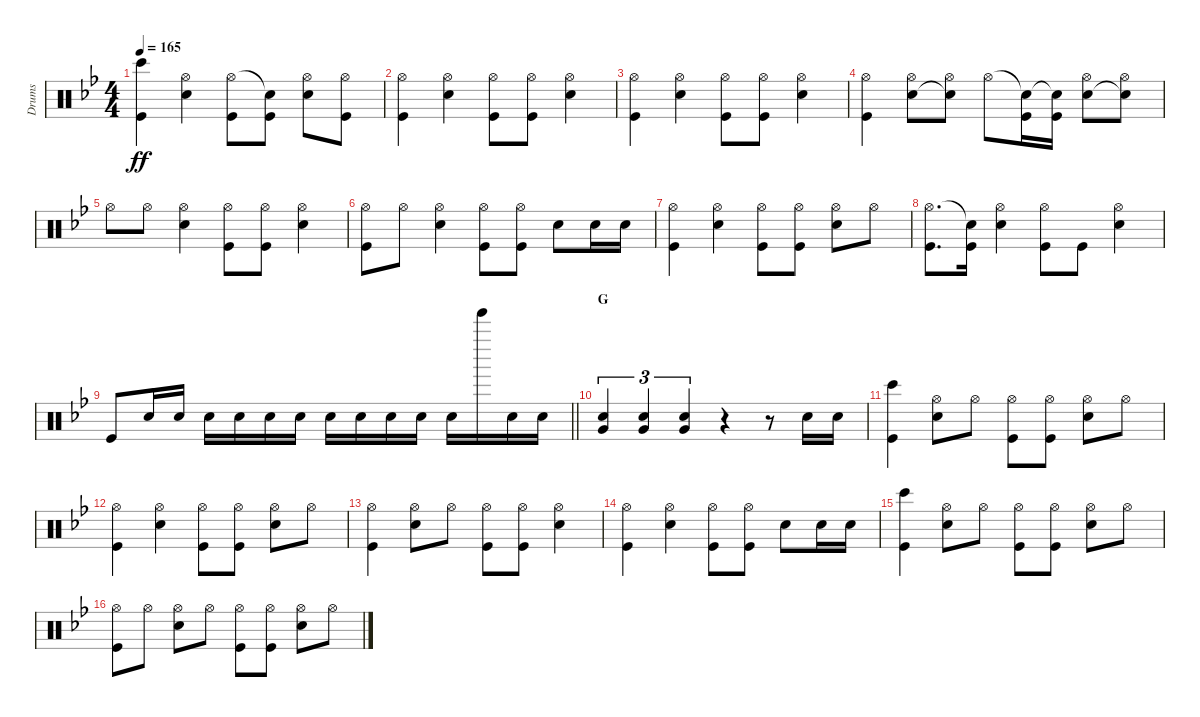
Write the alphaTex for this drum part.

\track ("Drums" "Drums") {instrument percussion}
\staff {score}
\articulation defaults
\ts (4 4)
\tempo 165
\clef neutral
\ks bb
("Bongo High (hit)" "Kick (hit)").4{dy ff} ("Hi-Hat (open)" "Snare (hit) 2").4 ("Hi-Hat (open)" "Kick (hit)").8 ("Snare (hit)"{t} "Kick (hit)").8 ("Hi-Hat (open)" "Snare (hit) 2").8 ("Hi-Hat (open)" "Kick (hit)").8 |
("Hi-Hat (open)" "Kick (hit)").4 ("Hi-Hat (open)" "Snare (hit) 2").4 ("Hi-Hat (open)" "Kick (hit)").8 ("Hi-Hat (open)" "Kick (hit)").8 ("Hi-Hat (open)" "Snare (hit) 2").4 |
("Hi-Hat (open)" "Kick (hit)").4 ("Hi-Hat (open)" "Snare (hit) 2").4 ("Hi-Hat (open)" "Kick (hit)").8 ("Hi-Hat (open)" "Kick (hit)").8 ("Hi-Hat (open)" "Snare (hit) 2").4 |
("Hi-Hat (open)" "Kick (hit)").4 ("Hi-Hat (open)" "Snare (hit) 2").8 ("Hi-Hat (open)" "Snare (hit)"{t}).8 "Hi-Hat (open)".8 ("Snare (hit)"{t} "Kick (hit)").16 ("Snare (hit)"{t} "Kick (hit)").16 ("Hi-Hat (open)" "Snare (hit) 2").8 ("Hi-Hat (open)" "Snare (hit)"{t}).8 |
"Hi-Hat (open)".8 "Hi-Hat (open)".8 ("Hi-Hat (open)" "Snare (hit) 2").4 ("Hi-Hat (open)" "Kick (hit)").8 ("Hi-Hat (open)" "Kick (hit)").8 ("Hi-Hat (open)" "Snare (hit) 2").4 |
("Hi-Hat (open)" "Kick (hit)").8 "Hi-Hat (open)".8 ("Hi-Hat (open)" "Snare (hit) 2").4 ("Hi-Hat (open)" "Kick (hit)").8 ("Hi-Hat (open)" "Kick (hit)").8 "Snare (hit) 2".8 "Snare (hit) 2".16 "Snare (hit) 2".16 |
("Hi-Hat (open)" "Kick (hit)").4 ("Hi-Hat (open)" "Snare (hit) 2").4 ("Hi-Hat (open)" "Kick (hit)").8 ("Hi-Hat (open)" "Kick (hit)").8 ("Hi-Hat (open)" "Snare (hit) 2").8 "Hi-Hat (open)".8 |
("Hi-Hat (open)" "Kick (hit)").8{d} ("Snare (hit)"{t} "Kick (hit)").16 ("Hi-Hat (open)" "Snare (hit) 2").4 ("Hi-Hat (open)" "Kick (hit)").8 "Kick (hit)".8 ("Hi-Hat (open)" "Snare (hit) 2").4 |
\barLineRight lightlight "Kick (hit)".8 "Snare (hit) 2".16 "Snare (hit) 2".16 "Snare (hit) 2".16 "Snare (hit) 2".16 "Snare (hit) 2".16 "Snare (hit) 2".16 "Snare (hit) 2".16 "Snare (hit) 2".16 "Snare (hit) 2".16 "Snare (hit) 2".16 "Snare (hit) 2".16 "Tinkle Bell (hit)".16 "Snare (hit) 2".16 "Snare (hit) 2".16
|
\section ("" "G")
("Very Low Tom (hit)" "Snare (hit) 2").4{tu (3 2)} ("Very Low Tom (hit)" "Snare (hit) 2").4{tu (3 2)} ("Very Low Tom (hit)" "Snare (hit) 2").4{tu (3 2)} r.4 r.8 "Snare (hit) 2".16 "Snare (hit) 2".16 |
("Bongo High (hit)" "Kick (hit)").4 ("Hi-Hat (open)" "Snare (hit) 2").8 "Hi-Hat (open)".8 ("Hi-Hat (open)" "Kick (hit)").8 ("Hi-Hat (open)" "Kick (hit)").8 ("Hi-Hat (open)" "Snare (hit) 2").8 "Hi-Hat (open)".8 |
("Hi-Hat (open)" "Kick (hit)").4 ("Hi-Hat (open)" "Snare (hit) 2").4 ("Hi-Hat (open)" "Kick (hit)").8 ("Hi-Hat (open)" "Kick (hit)").8 ("Hi-Hat (open)" "Snare (hit) 2").8 "Hi-Hat (open)".8 |
("Hi-Hat (open)" "Kick (hit)").4 ("Hi-Hat (open)" "Snare (hit) 2").8 "Hi-Hat (open)".8 ("Hi-Hat (open)" "Kick (hit)").8 ("Hi-Hat (open)" "Kick (hit)").8 ("Hi-Hat (open)" "Snare (hit) 2").4 |
("Hi-Hat (open)" "Kick (hit)").4 ("Hi-Hat (open)" "Snare (hit) 2").4 ("Hi-Hat (open)" "Kick (hit)").8 ("Hi-Hat (open)" "Kick (hit)").8 "Snare (hit) 2".8 "Snare (hit) 2".16 "Snare (hit) 2".16 |
("Bongo High (hit)" "Kick (hit)").4 ("Hi-Hat (open)" "Snare (hit) 2").8 "Hi-Hat (open)".8 ("Hi-Hat (open)" "Kick (hit)").8 ("Hi-Hat (open)" "Kick (hit)").8 ("Hi-Hat (open)" "Snare (hit) 2").8 "Hi-Hat (open)".8 |
("Hi-Hat (open)" "Kick (hit)").8 "Hi-Hat (open)".8 ("Hi-Hat (open)" "Snare (hit) 2").8 "Hi-Hat (open)".8 ("Hi-Hat (open)" "Kick (hit)").8 ("Hi-Hat (open)" "Kick (hit)").8 ("Hi-Hat (open)" "Snare (hit) 2").8 "Hi-Hat (open)".8
